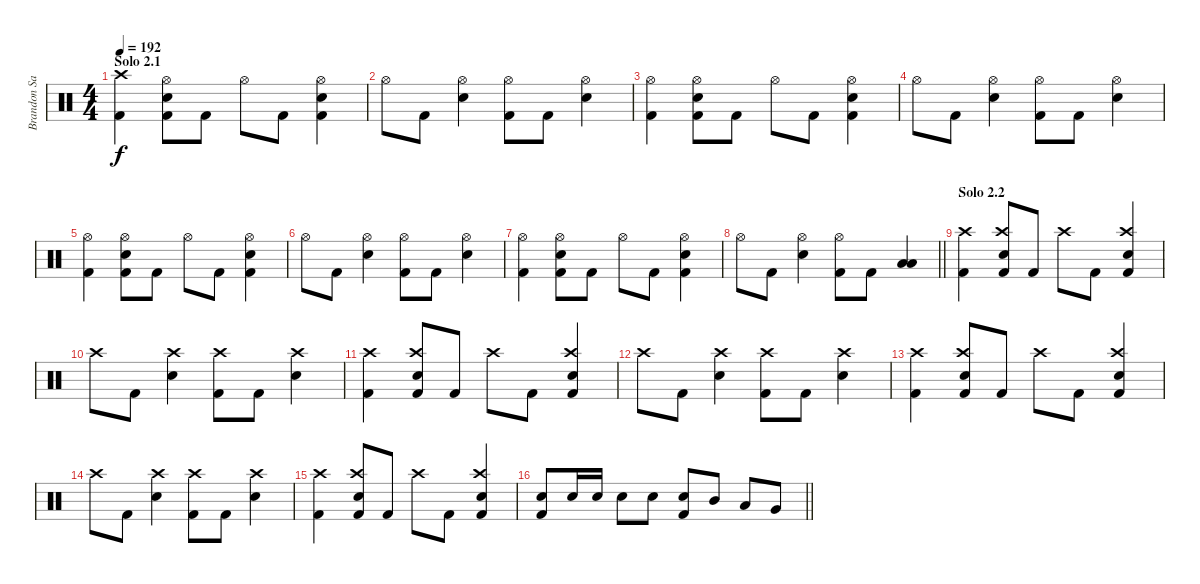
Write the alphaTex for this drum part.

\track ("Brandon Saller" "Brandon Sa") {instrument percussion}
\staff {score}
\articulation defaults
\ts (4 4)
\section ("" "Solo 2.1")
\tempo 192
\clef neutral
\ks aminor
("Kick (hit) 2" "Crash high (hit)").4{dy f} ("Kick (hit) 2" "Snare (hit) 2" "Hi-Hat (open)").8 "Kick (hit) 2".8 "Hi-Hat (open)".8 "Kick (hit) 2".8 ("Kick (hit) 2" "Snare (hit) 2" "Hi-Hat (open)").4 |
"Hi-Hat (open)".8 "Kick (hit) 2".8 ("Snare (hit) 2" "Hi-Hat (open)").4 ("Kick (hit) 2" "Hi-Hat (open)").8 "Kick (hit) 2".8 ("Snare (hit) 2" "Hi-Hat (open)").4 |
("Kick (hit) 2" "Hi-Hat (open)").4 ("Kick (hit) 2" "Snare (hit) 2" "Hi-Hat (open)").8 "Kick (hit) 2".8 "Hi-Hat (open)".8 "Kick (hit) 2".8 ("Kick (hit) 2" "Snare (hit) 2" "Hi-Hat (open)").4 |
"Hi-Hat (open)".8 "Kick (hit) 2".8 ("Snare (hit) 2" "Hi-Hat (open)").4 ("Kick (hit) 2" "Hi-Hat (open)").8 "Kick (hit) 2".8 ("Snare (hit) 2" "Hi-Hat (open)").4 |
("Kick (hit) 2" "Hi-Hat (open)").4 ("Kick (hit) 2" "Snare (hit) 2" "Hi-Hat (open)").8 "Kick (hit) 2".8 "Hi-Hat (open)".8 "Kick (hit) 2".8 ("Kick (hit) 2" "Snare (hit) 2" "Hi-Hat (open)").4 |
"Hi-Hat (open)".8 "Kick (hit) 2".8 ("Snare (hit) 2" "Hi-Hat (open)").4 ("Kick (hit) 2" "Hi-Hat (open)").8 "Kick (hit) 2".8 ("Snare (hit) 2" "Hi-Hat (open)").4 |
("Kick (hit) 2" "Hi-Hat (open)").4 ("Kick (hit) 2" "Snare (hit) 2" "Hi-Hat (open)").8 "Kick (hit) 2".8 "Hi-Hat (open)".8 "Kick (hit) 2".8 ("Kick (hit) 2" "Snare (hit) 2" "Hi-Hat (open)").4 |
\barLineRight lightlight "Hi-Hat (open)".8 "Kick (hit) 2".8
("Snare (hit) 2" "Hi-Hat (open)").4 ("Kick (hit) 2" "Hi-Hat (open)").8 "Kick (hit) 2".8 ("Low Tom (hit)" "Low Floor Tom (hit)").4 |
\section ("" "Solo 2.2")
("Kick (hit) 2" "Crash high (hit)").4 ("Kick (hit) 2" "Snare (hit) 2" "Crash high (hit)").8 "Kick (hit) 2".8 "Crash high (hit)".8 "Kick (hit) 2".8 ("Kick (hit) 2" "Snare (hit) 2" "Crash high (hit)").4 |
"Crash high (hit)".8 "Kick (hit) 2".8 ("Snare (hit) 2" "Crash high (hit)").4 ("Kick (hit) 2" "Crash high (hit)").8 "Kick (hit) 2".8 ("Snare (hit) 2" "Crash high (hit)").4 |
("Kick (hit) 2" "Crash high (hit)").4 ("Kick (hit) 2" "Snare (hit) 2" "Crash high (hit)").8 "Kick (hit) 2".8 "Crash high (hit)".8 "Kick (hit) 2".8 ("Kick (hit) 2" "Snare (hit) 2" "Crash high (hit)").4 |
"Crash high (hit)".8 "Kick (hit) 2".8 ("Snare (hit) 2" "Crash high (hit)").4 ("Kick (hit) 2" "Crash high (hit)").8 "Kick (hit) 2".8 ("Snare (hit) 2" "Crash high (hit)").4 |
("Kick (hit) 2" "Crash high (hit)").4 ("Kick (hit) 2" "Snare (hit) 2" "Crash high (hit)").8 "Kick (hit) 2".8 "Crash high (hit)".8 "Kick (hit) 2".8 ("Kick (hit) 2" "Snare (hit) 2" "Crash high (hit)").4 |
"Crash high (hit)".8 "Kick (hit) 2".8 ("Snare (hit) 2" "Crash high (hit)").4 ("Kick (hit) 2" "Crash high (hit)").8 "Kick (hit) 2".8 ("Snare (hit) 2" "Crash high (hit)").4 |
("Kick (hit) 2" "Crash high (hit)").4 ("Kick (hit) 2" "Snare (hit) 2" "Crash high (hit)").8 "Kick (hit) 2".8 "Crash high (hit)".8 "Kick (hit) 2".8 ("Kick (hit) 2" "Snare (hit) 2" "Crash high (hit)").4 |
\barLineRight lightlight
("Kick (hit) 2" "Snare (hit) 2").8 "Snare (hit) 2".16 "Snare (hit) 2".16 "Snare (hit) 2".8 "Snare (hit) 2".8 ("Kick (hit) 2" "Snare (hit) 2").8 "Mid Tom (hit)".8 "Low Tom (hit)".8 "Very Low Tom (hit)".8
